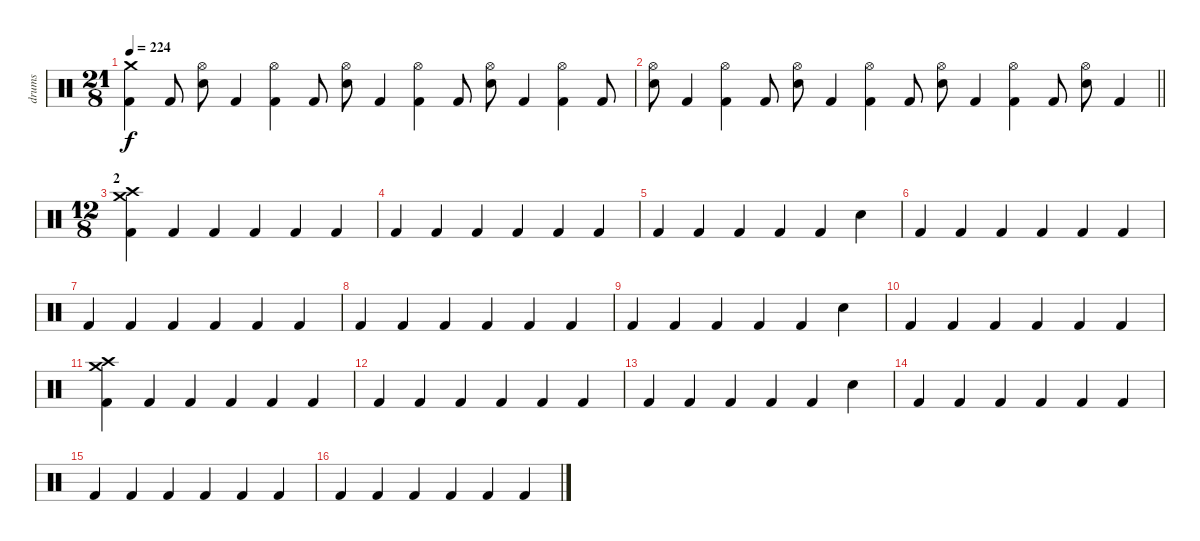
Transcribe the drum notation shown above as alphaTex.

\track ("drums" "drums") {instrument percussion}
\staff {score}
\articulation defaults
\ts (21 8)
\tempo 224
\clef neutral
\ks c
("Kick (hit) 2" "Crash medium (hit)").4{dy f} "Kick (hit) 2".8 ("Electric Snare (hit)" "Hi-Hat (open)").8 "Kick (hit) 2".4 ("Kick (hit) 2" "Hi-Hat (open)").4 "Kick (hit) 2".8 ("Electric Snare (hit)" "Hi-Hat (open)").8 "Kick (hit) 2".4 ("Kick (hit) 2" "Hi-Hat (open)").4 "Kick (hit) 2".8 ("Electric Snare (hit)" "Hi-Hat (open)").8 "Kick (hit) 2".4 ("Kick (hit) 2" "Hi-Hat (open)").4 "Kick (hit) 2".8 |
\barLineRight lightlight
("Electric Snare (hit)" "Hi-Hat (open)").8 "Kick (hit) 2".4 ("Kick (hit) 2" "Hi-Hat (open)").4 "Kick (hit) 2".8 ("Electric Snare (hit)" "Hi-Hat (open)").8 "Kick (hit) 2".4 ("Kick (hit) 2" "Hi-Hat (open)").4 "Kick (hit) 2".8 ("Electric Snare (hit)" "Hi-Hat (open)").8 "Kick (hit) 2".4 ("Kick (hit) 2" "Hi-Hat (open)").4 "Kick (hit) 2".8 ("Electric Snare (hit)" "Hi-Hat (open)").8 "Kick (hit) 2".4 |
\ts (12 8)
\section ("" "2")
("Kick (hit) 2" "Crash medium (hit)" "Crash high (hit)").4 "Kick (hit) 2".4 "Kick (hit) 2".4 "Kick (hit) 2".4 "Kick (hit) 2".4 "Kick (hit) 2".4 |
"Kick (hit) 2".4 "Kick (hit) 2".4 "Kick (hit) 2".4 "Kick (hit) 2".4 "Kick (hit) 2".4 "Kick (hit) 2".4 |
"Kick (hit) 2".4 "Kick (hit) 2".4 "Kick (hit) 2".4 "Kick (hit) 2".4 "Kick (hit) 2".4 "Electric Snare (hit)".4 |
"Kick (hit) 2".4 "Kick (hit) 2".4 "Kick (hit) 2".4 "Kick (hit) 2".4 "Kick (hit) 2".4 "Kick (hit) 2".4 |
"Kick (hit) 2".4 "Kick (hit) 2".4 "Kick (hit) 2".4 "Kick (hit) 2".4 "Kick (hit) 2".4 "Kick (hit) 2".4 |
"Kick (hit) 2".4 "Kick (hit) 2".4 "Kick (hit) 2".4 "Kick (hit) 2".4 "Kick (hit) 2".4 "Kick (hit) 2".4 |
"Kick (hit) 2".4 "Kick (hit) 2".4 "Kick (hit) 2".4 "Kick (hit) 2".4 "Kick (hit) 2".4 "Electric Snare (hit)".4 |
"Kick (hit) 2".4 "Kick (hit) 2".4 "Kick (hit) 2".4 "Kick (hit) 2".4 "Kick (hit) 2".4 "Kick (hit) 2".4 |
("Kick (hit) 2" "Crash medium (hit)" "Crash high (hit)").4 "Kick (hit) 2".4 "Kick (hit) 2".4 "Kick (hit) 2".4 "Kick (hit) 2".4 "Kick (hit) 2".4 |
"Kick (hit) 2".4 "Kick (hit) 2".4 "Kick (hit) 2".4 "Kick (hit) 2".4 "Kick (hit) 2".4 "Kick (hit) 2".4 |
"Kick (hit) 2".4 "Kick (hit) 2".4 "Kick (hit) 2".4 "Kick (hit) 2".4 "Kick (hit) 2".4 "Electric Snare (hit)".4 |
"Kick (hit) 2".4 "Kick (hit) 2".4 "Kick (hit) 2".4 "Kick (hit) 2".4 "Kick (hit) 2".4 "Kick (hit) 2".4 |
"Kick (hit) 2".4 "Kick (hit) 2".4 "Kick (hit) 2".4 "Kick (hit) 2".4 "Kick (hit) 2".4 "Kick (hit) 2".4 |
"Kick (hit) 2".4 "Kick (hit) 2".4 "Kick (hit) 2".4 "Kick (hit) 2".4 "Kick (hit) 2".4 "Kick (hit) 2".4
